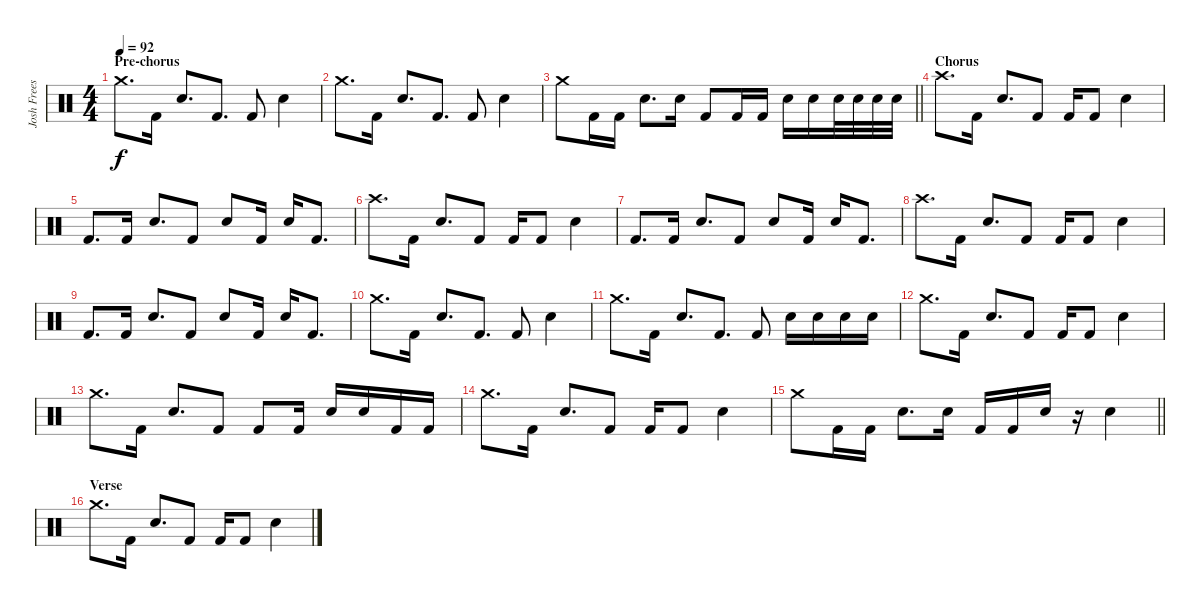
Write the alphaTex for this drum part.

\track ("Josh Freese (Studio Drummer)" "Josh Frees") {instrument percussion}
\staff {score}
\articulation defaults
\ts (4 4)
\section ("" "Pre-chorus")
\tempo 92
\clef neutral
\ks c "Crash medium (hit)".8{d dy f} "Kick (hit) 2".16 "Electric Snare (hit)".8{d} "Kick (hit) 2".8{d} "Kick (hit) 2".8 "Electric Snare (hit)".4
|
"Crash medium (hit)".8{d} "Kick (hit) 2".16 "Electric Snare (hit)".8{d} "Kick (hit) 2".8{d} "Kick (hit) 2".8 "Electric Snare (hit)".4 |
\barLineRight lightlight "Crash medium (hit)".8 "Kick (hit) 2".16 "Kick (hit) 2".16 "Electric Snare (hit)".8{d} "Electric Snare (hit)".16 "Kick (hit) 2".8 "Kick (hit) 2".16 "Kick (hit) 2".16 "Electric Snare (hit)".16 "Electric Snare (hit)".16 "Electric Snare (hit)".32 "Electric Snare (hit)".32 "Electric Snare (hit)".32 "Electric Snare (hit)".32
|
\section ("" "Chorus")
"Crash high (hit)".8{d} "Kick (hit) 2".16 "Electric Snare (hit)".8{d} "Kick (hit) 2".8 "Kick (hit) 2".16 "Kick (hit) 2".8 "Electric Snare (hit)".4 |
"Kick (hit) 2".8{d} "Kick (hit) 2".16 "Electric Snare (hit)".8{d} "Kick (hit) 2".8 "Electric Snare (hit)".8 "Kick (hit) 2".16 "Electric Snare (hit)".16 "Kick (hit) 2".8{d} |
"Crash high (hit)".8{d} "Kick (hit) 2".16 "Electric Snare (hit)".8{d} "Kick (hit) 2".8 "Kick (hit) 2".16 "Kick (hit) 2".8 "Electric Snare (hit)".4 |
"Kick (hit) 2".8{d} "Kick (hit) 2".16 "Electric Snare (hit)".8{d} "Kick (hit) 2".8 "Electric Snare (hit)".8 "Kick (hit) 2".16 "Electric Snare (hit)".16 "Kick (hit) 2".8{d} |
"Crash high (hit)".8{d} "Kick (hit) 2".16 "Electric Snare (hit)".8{d} "Kick (hit) 2".8 "Kick (hit) 2".16 "Kick (hit) 2".8 "Electric Snare (hit)".4 |
"Kick (hit) 2".8{d} "Kick (hit) 2".16 "Electric Snare (hit)".8{d} "Kick (hit) 2".8 "Electric Snare (hit)".8 "Kick (hit) 2".16 "Electric Snare (hit)".16 "Kick (hit) 2".8{d} |
"Crash medium (hit)".8{d} "Kick (hit) 2".16 "Electric Snare (hit)".8{d} "Kick (hit) 2".8{d} "Kick (hit) 2".8 "Electric Snare (hit)".4 |
"Crash medium (hit)".8{d} "Kick (hit) 2".16 "Electric Snare (hit)".8{d} "Kick (hit) 2".8{d} "Kick (hit) 2".8 "Electric Snare (hit)".16 "Electric Snare (hit)".16 "Electric Snare (hit)".16 "Electric Snare (hit)".16 |
"Crash medium (hit)".8{d} "Kick (hit) 2".16 "Electric Snare (hit)".8{d} "Kick (hit) 2".8 "Kick (hit) 2".16 "Kick (hit) 2".8 "Electric Snare (hit)".4 |
"Crash medium (hit)".8{d} "Kick (hit) 2".16 "Electric Snare (hit)".8{d} "Kick (hit) 2".8 "Kick (hit) 2".8 "Kick (hit) 2".16 "Electric Snare (hit)".16 "Electric Snare (hit)".16 "Kick (hit) 2".16 "Kick (hit) 2".16 |
"Crash medium (hit)".8{d} "Kick (hit) 2".16 "Electric Snare (hit)".8{d} "Kick (hit) 2".8 "Kick (hit) 2".16 "Kick (hit) 2".8 "Electric Snare (hit)".4 |
\barLineRight lightlight "Crash medium (hit)".8 "Kick (hit) 2".16 "Kick (hit) 2".16 "Electric Snare (hit)".8{d} "Electric Snare (hit)".16 "Kick (hit) 2".16 "Kick (hit) 2".16 "Electric Snare (hit)".16
r.16 "Electric Snare (hit)".4 |
\section ("" "Verse")
"Crash medium (hit)".8{d} "Kick (hit) 2".16 "Electric Snare (hit)".8{d} "Kick (hit) 2".8 "Kick (hit) 2".16 "Kick (hit) 2".8 "Electric Snare (hit)".4
